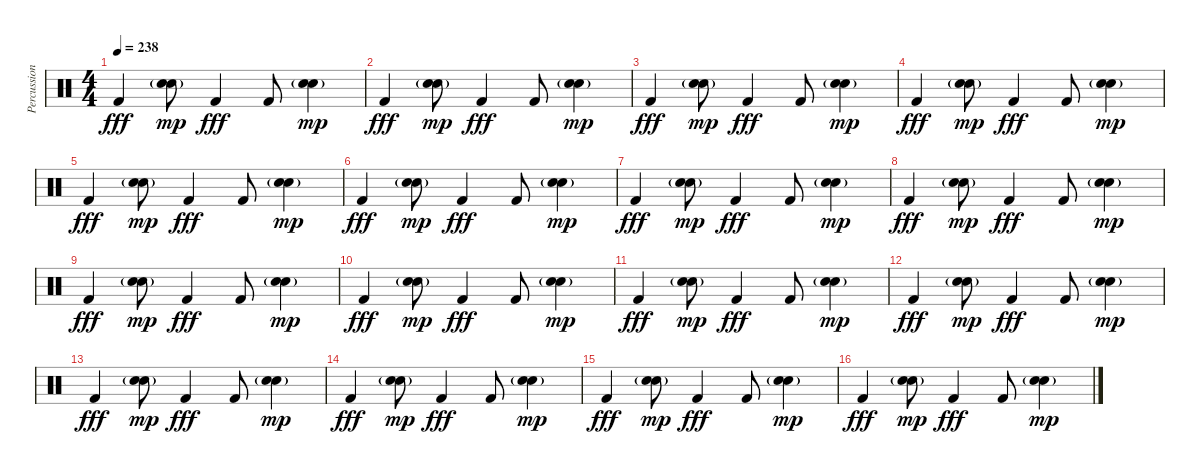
\track ("Percussion" "Percussion") {instrument percussion}
\staff {score}
\articulation defaults
\ts (4 4)
\tempo 238
\clef neutral
\ks c "Kick (hit) 2".4{dy fff}
("Hand Clap (hit)"{g} "Hand Clap (hit)"{g}).8{bd 480 dy mp} "Kick (hit) 2".4{dy fff} "Kick (hit) 2".8 ("Hand Clap (hit)"{g} "Hand Clap (hit)"{g}).4{bd 480 dy mp} |
"Kick (hit) 2".4{dy fff} ("Hand Clap (hit)"{g} "Hand Clap (hit)"{g}).8{bd 480 dy mp} "Kick (hit) 2".4{dy fff} "Kick (hit) 2".8 ("Hand Clap (hit)"{g} "Hand Clap (hit)"{g}).4{bd 480 dy mp} |
"Kick (hit) 2".4{dy fff} ("Hand Clap (hit)"{g} "Hand Clap (hit)"{g}).8{bd 480 dy mp} "Kick (hit) 2".4{dy fff} "Kick (hit) 2".8 ("Hand Clap (hit)"{g} "Hand Clap (hit)"{g}).4{bd 480 dy mp} |
"Kick (hit) 2".4{dy fff} ("Hand Clap (hit)"{g} "Hand Clap (hit)"{g}).8{bd 480 dy mp} "Kick (hit) 2".4{dy fff} "Kick (hit) 2".8 ("Hand Clap (hit)"{g} "Hand Clap (hit)"{g}).4{bd 480 dy mp} |
"Kick (hit) 2".4{dy fff} ("Hand Clap (hit)"{g} "Hand Clap (hit)"{g}).8{bd 480 dy mp} "Kick (hit) 2".4{dy fff} "Kick (hit) 2".8 ("Hand Clap (hit)"{g} "Hand Clap (hit)"{g}).4{bd 480 dy mp} |
"Kick (hit) 2".4{dy fff} ("Hand Clap (hit)"{g} "Hand Clap (hit)"{g}).8{bd 480 dy mp} "Kick (hit) 2".4{dy fff} "Kick (hit) 2".8 ("Hand Clap (hit)"{g} "Hand Clap (hit)"{g}).4{bd 480 dy mp} |
"Kick (hit) 2".4{dy fff} ("Hand Clap (hit)"{g} "Hand Clap (hit)"{g}).8{bd 480 dy mp} "Kick (hit) 2".4{dy fff} "Kick (hit) 2".8 ("Hand Clap (hit)"{g} "Hand Clap (hit)"{g}).4{bd 480 dy mp} |
"Kick (hit) 2".4{dy fff} ("Hand Clap (hit)"{g} "Hand Clap (hit)"{g}).8{bd 480 dy mp} "Kick (hit) 2".4{dy fff} "Kick (hit) 2".8 ("Hand Clap (hit)"{g} "Hand Clap (hit)"{g}).4{bd 480 dy mp} |
"Kick (hit) 2".4{dy fff} ("Hand Clap (hit)"{g} "Hand Clap (hit)"{g}).8{bd 480 dy mp} "Kick (hit) 2".4{dy fff} "Kick (hit) 2".8 ("Hand Clap (hit)"{g} "Hand Clap (hit)"{g}).4{bd 480 dy mp} |
"Kick (hit) 2".4{dy fff} ("Hand Clap (hit)"{g} "Hand Clap (hit)"{g}).8{bd 480 dy mp} "Kick (hit) 2".4{dy fff} "Kick (hit) 2".8 ("Hand Clap (hit)"{g} "Hand Clap (hit)"{g}).4{bd 480 dy mp} |
"Kick (hit) 2".4{dy fff} ("Hand Clap (hit)"{g} "Hand Clap (hit)"{g}).8{bd 480 dy mp} "Kick (hit) 2".4{dy fff} "Kick (hit) 2".8 ("Hand Clap (hit)"{g} "Hand Clap (hit)"{g}).4{bd 480 dy mp} |
"Kick (hit) 2".4{dy fff} ("Hand Clap (hit)"{g} "Hand Clap (hit)"{g}).8{bd 480 dy mp} "Kick (hit) 2".4{dy fff} "Kick (hit) 2".8 ("Hand Clap (hit)"{g} "Hand Clap (hit)"{g}).4{bd 480 dy mp} |
"Kick (hit) 2".4{dy fff} ("Hand Clap (hit)"{g} "Hand Clap (hit)"{g}).8{bd 480 dy mp} "Kick (hit) 2".4{dy fff} "Kick (hit) 2".8 ("Hand Clap (hit)"{g} "Hand Clap (hit)"{g}).4{bd 480 dy mp} |
"Kick (hit) 2".4{dy fff} ("Hand Clap (hit)"{g} "Hand Clap (hit)"{g}).8{bd 480 dy mp} "Kick (hit) 2".4{dy fff} "Kick (hit) 2".8 ("Hand Clap (hit)"{g} "Hand Clap (hit)"{g}).4{bd 480 dy mp} |
"Kick (hit) 2".4{dy fff} ("Hand Clap (hit)"{g} "Hand Clap (hit)"{g}).8{bd 480 dy mp} "Kick (hit) 2".4{dy fff} "Kick (hit) 2".8 ("Hand Clap (hit)"{g} "Hand Clap (hit)"{g}).4{bd 480 dy mp} |
"Kick (hit) 2".4{dy fff} ("Hand Clap (hit)"{g} "Hand Clap (hit)"{g}).8{bd 480 dy mp} "Kick (hit) 2".4{dy fff} "Kick (hit) 2".8 ("Hand Clap (hit)"{g} "Hand Clap (hit)"{g}).4{bd 480 dy mp}
